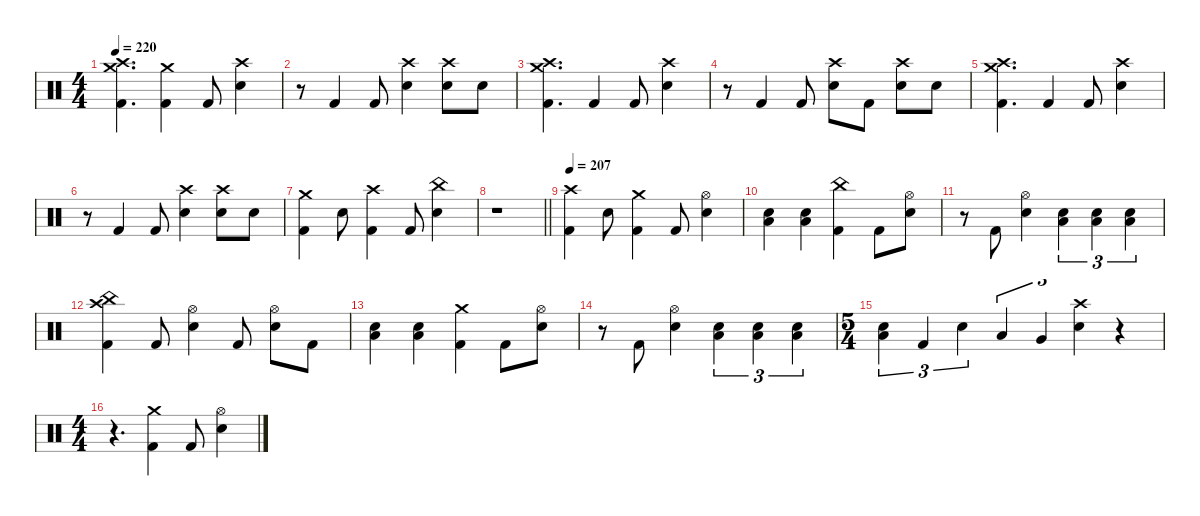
\defaultSystemsLayout 4
\hideDynamics
\bracketExtendMode nobrackets
\singleTrackTrackNamePolicy hidden
\multiTrackTrackNamePolicy hidden
\firstSystemTrackNameMode fullname
\otherSystemsTrackNameOrientation horizontal
\track ("Drums" "drm.") {defaultSystemsLayout 4 instrument percussion}
\staff {score}
\articulation defaults
\ts (4 4)
\tempo 220
\clef neutral
\ks c
("Crash high (hit)" "Crash medium (hit)" "Kick (hit) 2").4{d dy f beam Down} ("Crash medium (hit)" "Kick (hit) 2").4{beam Down} "Kick (hit) 2".8{beam Up} ("Crash high (hit)" "Snare (hit) 2").4{beam Down} |
r.8{beam Down} "Kick (hit) 2".4{beam Up} "Kick (hit) 2".8{beam Up} ("Crash high (hit)" "Snare (hit) 2").4{beam Down} ("Crash high (hit)" "Snare (hit) 2").8{beam Down} "Snare (hit) 2".8{beam Down} |
("Crash high (hit)" "Crash medium (hit)" "Kick (hit) 2").4{d beam Down} "Kick (hit) 2".4{beam Up} "Kick (hit) 2".8{beam Up} ("Crash high (hit)" "Snare (hit) 2").4{beam Down} |
r.8{beam Down} "Kick (hit) 2".4{beam Up} "Kick (hit) 2".8{beam Up} ("Crash high (hit)" "Snare (hit) 2").8{beam Down} "Kick (hit) 2".8{beam Down} ("Crash high (hit)" "Snare (hit) 2").8{beam Down} "Snare (hit) 2".8{beam Down} |
("Crash high (hit)" "Crash medium (hit)" "Kick (hit) 2").4{d beam Down} "Kick (hit) 2".4{beam Up} "Kick (hit) 2".8{beam Up} ("Crash high (hit)" "Snare (hit) 2").4{beam Down} |
r.8{beam Down} "Kick (hit) 2".4{beam Up} "Kick (hit) 2".8{beam Up} ("Crash high (hit)" "Snare (hit) 2").4{beam Down} ("Crash high (hit)" "Snare (hit) 2").8{beam Down} "Snare (hit) 2".8{beam Down} |
("Crash medium (hit)" "Kick (hit) 2").4{beam Down} "Snare (hit) 2".8{beam Down} ("Crash high (hit)" "Kick (hit) 2").4{beam Down} "Kick (hit) 2".8{beam Up} ("China (hit)" "Snare (hit) 2").4{beam Down} |
\barLineRight lightlight
r.1{beam Down} |
\tempo 207
("Crash high (hit)" "Kick (hit) 2").4{beam Down} "Snare (hit) 2".8{beam Down} ("Crash medium (hit)" "Kick (hit) 2").4{beam Down} "Kick (hit) 2".8{beam Up} ("Hi-Hat (open)" "Snare (hit) 2").4{beam Down} |
("Low Floor Tom (hit)" "Snare (hit) 2").4{beam Down} ("Low Floor Tom (hit)" "Snare (hit) 2").4{beam Down} ("China (hit)" "Kick (hit) 2").4{beam Down} "Kick (hit) 2".8{beam Down} ("Hi-Hat (open)" "Snare (hit) 2").8{beam Down} |
r.8{beam Down} "Kick (hit) 2".8{beam Up} ("Hi-Hat (open)" "Snare (hit) 2").4{beam Down} ("Low Floor Tom (hit)" "Snare (hit) 2").4{tu (3 2) beam Down} ("Low Floor Tom (hit)" "Snare (hit) 2").4{tu (3 2) beam Down} ("Low Floor Tom (hit)" "Snare (hit) 2").4{tu (3 2) beam Down} |
("Crash high (hit)" "China (hit)" "Kick (hit) 2").4{beam Down} "Kick (hit) 2".8{beam Up} ("Hi-Hat (open)" "Snare (hit) 2").4{beam Down} "Kick (hit) 2".8{beam Up} ("Hi-Hat (open)" "Snare (hit) 2").8{dy mp beam Down} "Kick (hit) 2".8{dy f beam Down} |
("Low Floor Tom (hit)" "Snare (hit) 2").4{beam Down} ("Low Floor Tom (hit)" "Snare (hit) 2").4{beam Down} ("Crash medium (hit)" "Kick (hit) 2").4{beam Down} "Kick (hit) 2".8{beam Down} ("Hi-Hat (open)" "Snare (hit) 2").8{beam Down} |
r.8{beam Down} "Kick (hit) 2".8{beam Up} ("Hi-Hat (open)" "Snare (hit) 2").4{beam Down} ("Low Floor Tom (hit)" "Snare (hit) 2").4{tu (3 2) beam Down} ("Low Floor Tom (hit)" "Snare (hit) 2").4{tu (3 2) beam Down} ("Low Floor Tom (hit)" "Snare (hit) 2").4{tu (3 2) beam Down} |
\ts (5 4)
\beaming (8 2 2 2 4)
("Low Floor Tom (hit)" "Snare (hit) 2").4{tu (3 2) beam Down} "Kick (hit) 2".4{tu (3 2) beam Up} "Snare (hit) 2".4{tu (3 2) beam Down} "Low Tom (hit)".4{tu (3 2) beam Up} "Very Low Tom (hit)".4{tu (3 2) beam Up} ("Crash high (hit)" "Snare (hit) 2").4{tu (3 2) beam Down} r.4{beam Down} |
\ts (4 4)
\beaming (8 2 2 2 2)
r.4{d beam Down} ("Crash medium (hit)" "Kick (hit) 2").4{beam Down} "Kick (hit) 2".8{beam Up} ("Hi-Hat (open)" "Snare (hit) 2").4{beam Down}
